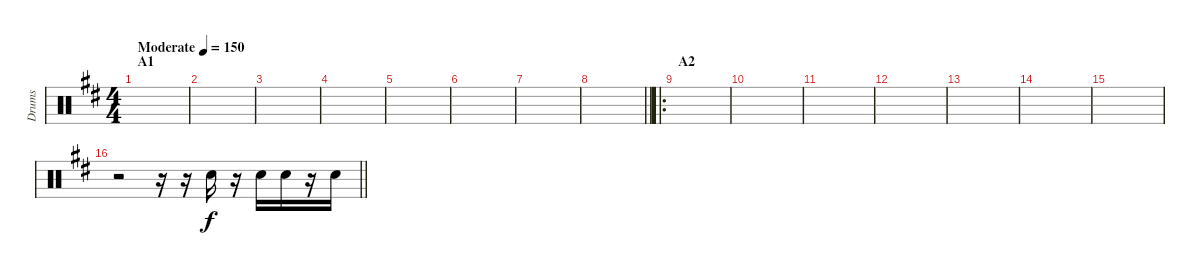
\track ("Drums" "Drums") {instrument percussion}
\staff {score}
\articulation defaults
\ts (4 4)
\section ("" "A1")
\tempo (150 "Moderate")
\clef neutral
\ks d
|
|
|
|
|
|
|
\barLineRight lightlight
|
\ro
\section ("" "A2")
|
|
|
|
|
|
|
\barLineRight lightlight
r.2 r.16 r.16 "Electric Snare (hit)".16 r.16 "Electric Snare (hit)".16 "Electric Snare (hit)".16 r.16 "Electric Snare (hit)".16
